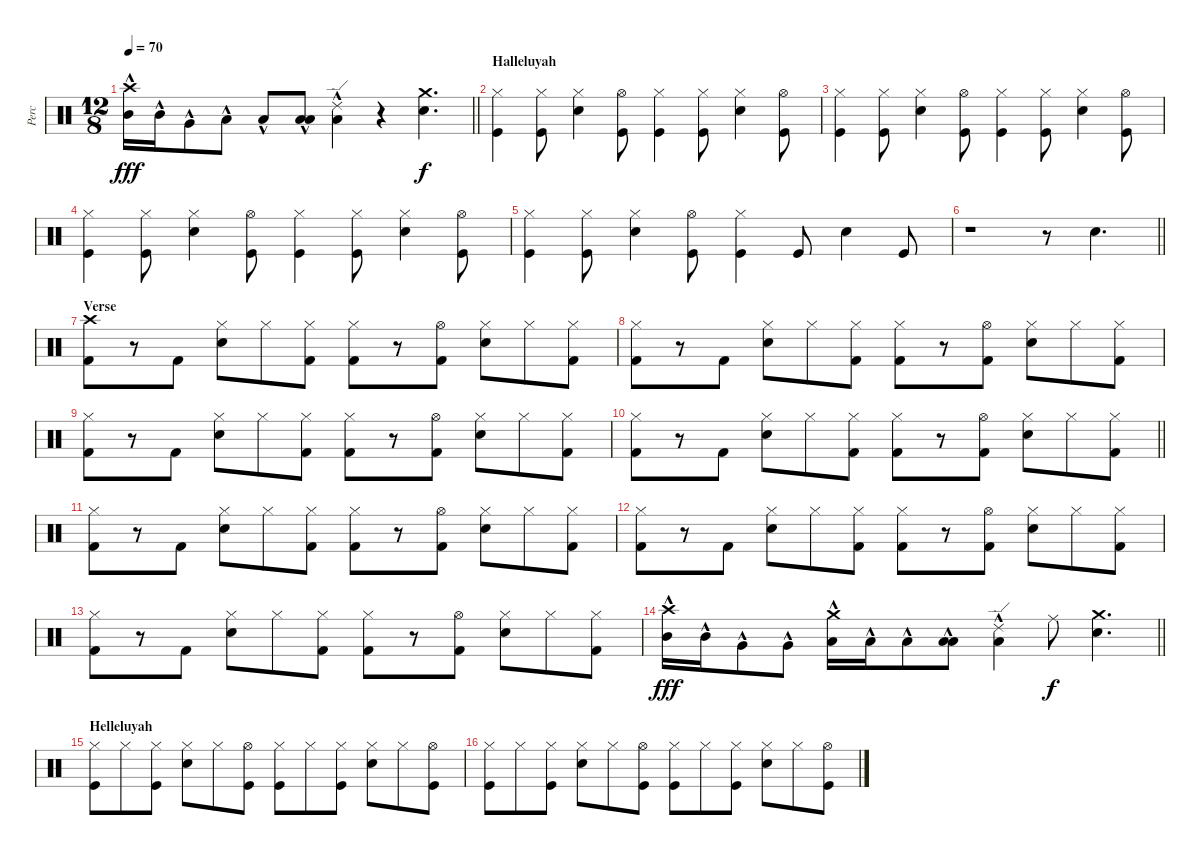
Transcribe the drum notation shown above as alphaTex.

\track ("Perc" "Perc") {instrument percussion}
\staff {score}
\articulation defaults
\ts (12 8)
\tempo 70
\clef neutral
\barLineRight lightlight
\ks c
("Mid Tom (hit)"{hac} "Crash high (hit)").16{dy fff} "Mid Tom (hit)"{hac}.16 "Very Low Tom (hit)"{hac}.8 "Low Floor Tom (hit)"{hac}.8 "Low Floor Tom (hit)"{hac}.8 ("Low Floor Tom (hit)"{hac} "Low Floor Tom (hit)").8 ("Low Floor Tom (hit)"{hac} "Ride (edge) 2").4 r.4 ("Electric Snare (hit)" "Crash medium (hit)").4{d dy f} |
\section ("" "Halleluyah")
("Hi-Hat (closed)" "Kick (hit)").4 ("Hi-Hat (closed)" "Kick (hit)").8 ("Hi-Hat (closed)" "Snare (hit) 2").4 ("Hi-Hat (open)" "Kick (hit)").8 ("Hi-Hat (closed)" "Kick (hit)").4 ("Hi-Hat (closed)" "Kick (hit)").8 ("Hi-Hat (closed)" "Snare (hit) 2").4 ("Hi-Hat (open)" "Kick (hit)").8 |
("Hi-Hat (closed)" "Kick (hit)").4 ("Hi-Hat (closed)" "Kick (hit)").8 ("Hi-Hat (closed)" "Snare (hit) 2").4 ("Hi-Hat (open)" "Kick (hit)").8 ("Hi-Hat (closed)" "Kick (hit)").4 ("Hi-Hat (closed)" "Kick (hit)").8 ("Hi-Hat (closed)" "Snare (hit) 2").4 ("Hi-Hat (open)" "Kick (hit)").8 |
("Hi-Hat (closed)" "Kick (hit)").4 ("Hi-Hat (closed)" "Kick (hit)").8 ("Hi-Hat (closed)" "Snare (hit) 2").4 ("Hi-Hat (open)" "Kick (hit)").8 ("Hi-Hat (closed)" "Kick (hit)").4 ("Hi-Hat (closed)" "Kick (hit)").8 ("Hi-Hat (closed)" "Snare (hit) 2").4 ("Hi-Hat (open)" "Kick (hit)").8 |
("Hi-Hat (closed)" "Kick (hit)").4 ("Hi-Hat (closed)" "Kick (hit)").8 ("Hi-Hat (closed)" "Snare (hit) 2").4 ("Hi-Hat (open)" "Kick (hit)").8 ("Hi-Hat (closed)" "Kick (hit)").4 "Kick (hit)".8 "Snare (hit) 2".4 "Kick (hit)".8 |
\barLineRight lightlight
r.1 r.8 "Snare (hit) 2".4{d} |
\section ("" "Verse")
("Crash high (hit)" "Kick (hit) 2").8 r.8 "Kick (hit) 2".8 ("Hi-Hat (closed)" "Electric Snare (hit)").8 "Hi-Hat (closed)".8 ("Hi-Hat (closed)" "Kick (hit) 2").8 ("Hi-Hat (closed)" "Kick (hit) 2").8 r.8 ("Hi-Hat (open)" "Kick (hit) 2").8 ("Hi-Hat (closed)" "Electric Snare (hit)").8 "Hi-Hat (closed)".8 ("Hi-Hat (closed)" "Kick (hit) 2").8 |
("Kick (hit) 2" "Hi-Hat (closed)").8 r.8 "Kick (hit) 2".8 ("Hi-Hat (closed)" "Electric Snare (hit)").8 "Hi-Hat (closed)".8 ("Hi-Hat (closed)" "Kick (hit) 2").8 ("Hi-Hat (closed)" "Kick (hit) 2").8 r.8 ("Hi-Hat (open)" "Kick (hit) 2").8 ("Hi-Hat (closed)" "Electric Snare (hit)").8 "Hi-Hat (closed)".8 ("Hi-Hat (closed)" "Kick (hit) 2").8 |
("Kick (hit) 2" "Hi-Hat (closed)").8 r.8 "Kick (hit) 2".8 ("Hi-Hat (closed)" "Electric Snare (hit)").8 "Hi-Hat (closed)".8 ("Hi-Hat (closed)" "Kick (hit) 2").8 ("Hi-Hat (closed)" "Kick (hit) 2").8 r.8 ("Hi-Hat (open)" "Kick (hit) 2").8 ("Hi-Hat (closed)" "Electric Snare (hit)").8 "Hi-Hat (closed)".8 ("Hi-Hat (closed)" "Kick (hit) 2").8 |
\barLineRight lightlight
("Kick (hit) 2" "Hi-Hat (closed)").8 r.8 "Kick (hit) 2".8 ("Hi-Hat (closed)" "Electric Snare (hit)").8 "Hi-Hat (closed)".8 ("Hi-Hat (closed)" "Kick (hit) 2").8 ("Hi-Hat (closed)" "Kick (hit) 2").8 r.8 ("Hi-Hat (open)" "Kick (hit) 2").8 ("Hi-Hat (closed)" "Electric Snare (hit)").8 "Hi-Hat (closed)".8 ("Hi-Hat (closed)" "Kick (hit) 2").8 |
\section ("" "")
("Kick (hit) 2" "Hi-Hat (closed)").8 r.8 "Kick (hit) 2".8 ("Hi-Hat (closed)" "Electric Snare (hit)").8 "Hi-Hat (closed)".8 ("Hi-Hat (closed)" "Kick (hit) 2").8 ("Hi-Hat (closed)" "Kick (hit) 2").8 r.8 ("Hi-Hat (open)" "Kick (hit) 2").8 ("Hi-Hat (closed)" "Electric Snare (hit)").8 "Hi-Hat (closed)".8 ("Hi-Hat (closed)" "Kick (hit) 2").8 |
("Kick (hit) 2" "Hi-Hat (closed)").8 r.8 "Kick (hit) 2".8 ("Hi-Hat (closed)" "Electric Snare (hit)").8 "Hi-Hat (closed)".8 ("Hi-Hat (closed)" "Kick (hit) 2").8 ("Hi-Hat (closed)" "Kick (hit) 2").8 r.8 ("Hi-Hat (open)" "Kick (hit) 2").8 ("Hi-Hat (closed)" "Electric Snare (hit)").8 "Hi-Hat (closed)".8 ("Hi-Hat (closed)" "Kick (hit) 2").8 |
("Kick (hit) 2" "Hi-Hat (closed)").8 r.8 "Kick (hit) 2".8 ("Hi-Hat (closed)" "Electric Snare (hit)").8 "Hi-Hat (closed)".8 ("Hi-Hat (closed)" "Kick (hit) 2").8 ("Hi-Hat (closed)" "Kick (hit) 2").8 r.8 ("Hi-Hat (open)" "Kick (hit) 2").8 ("Hi-Hat (closed)" "Electric Snare (hit)").8 "Hi-Hat (closed)".8 ("Hi-Hat (closed)" "Kick (hit) 2").8 |
\barLineRight lightlight
("Mid Tom (hit)"{hac} "Crash high (hit)").16{dy fff} "Mid Tom (hit)"{hac}.16 "Very Low Tom (hit)"{hac}.8 "Very Low Tom (hit)"{hac}.8 ("Low Tom (hit)"{hac} "Crash medium (hit)").16 "Low Tom (hit)"{hac}.16 "Low Floor Tom (hit)"{hac}.8 ("Low Floor Tom (hit)"{hac} "Low Floor Tom (hit)").8 ("Low Floor Tom (hit)"{hac} "Ride (edge) 2").4 "Ride (middle)".8{dy f} ("Electric Snare (hit)" "Crash medium (hit)").4{d} |
\section ("" "Helleluyah")
("Hi-Hat (closed)" "Kick (hit)").8 "Hi-Hat (closed)".8 ("Hi-Hat (closed)" "Kick (hit)").8 ("Hi-Hat (closed)" "Snare (hit) 2").8 "Hi-Hat (closed)".8 ("Hi-Hat (open)" "Kick (hit)").8 ("Hi-Hat (closed)" "Kick (hit)").8 "Hi-Hat (closed)".8 ("Hi-Hat (closed)" "Kick (hit)").8 ("Hi-Hat (closed)" "Snare (hit) 2").8 "Hi-Hat (closed)".8 ("Hi-Hat (open)" "Kick (hit)").8 |
("Hi-Hat (closed)" "Kick (hit)").8 "Hi-Hat (closed)".8 ("Hi-Hat (closed)" "Kick (hit)").8 ("Hi-Hat (closed)" "Snare (hit) 2").8 "Hi-Hat (closed)".8 ("Hi-Hat (open)" "Kick (hit)").8 ("Hi-Hat (closed)" "Kick (hit)").8 "Hi-Hat (closed)".8 ("Hi-Hat (closed)" "Kick (hit)").8 ("Hi-Hat (closed)" "Snare (hit) 2").8 "Hi-Hat (closed)".8 ("Hi-Hat (open)" "Kick (hit)").8
